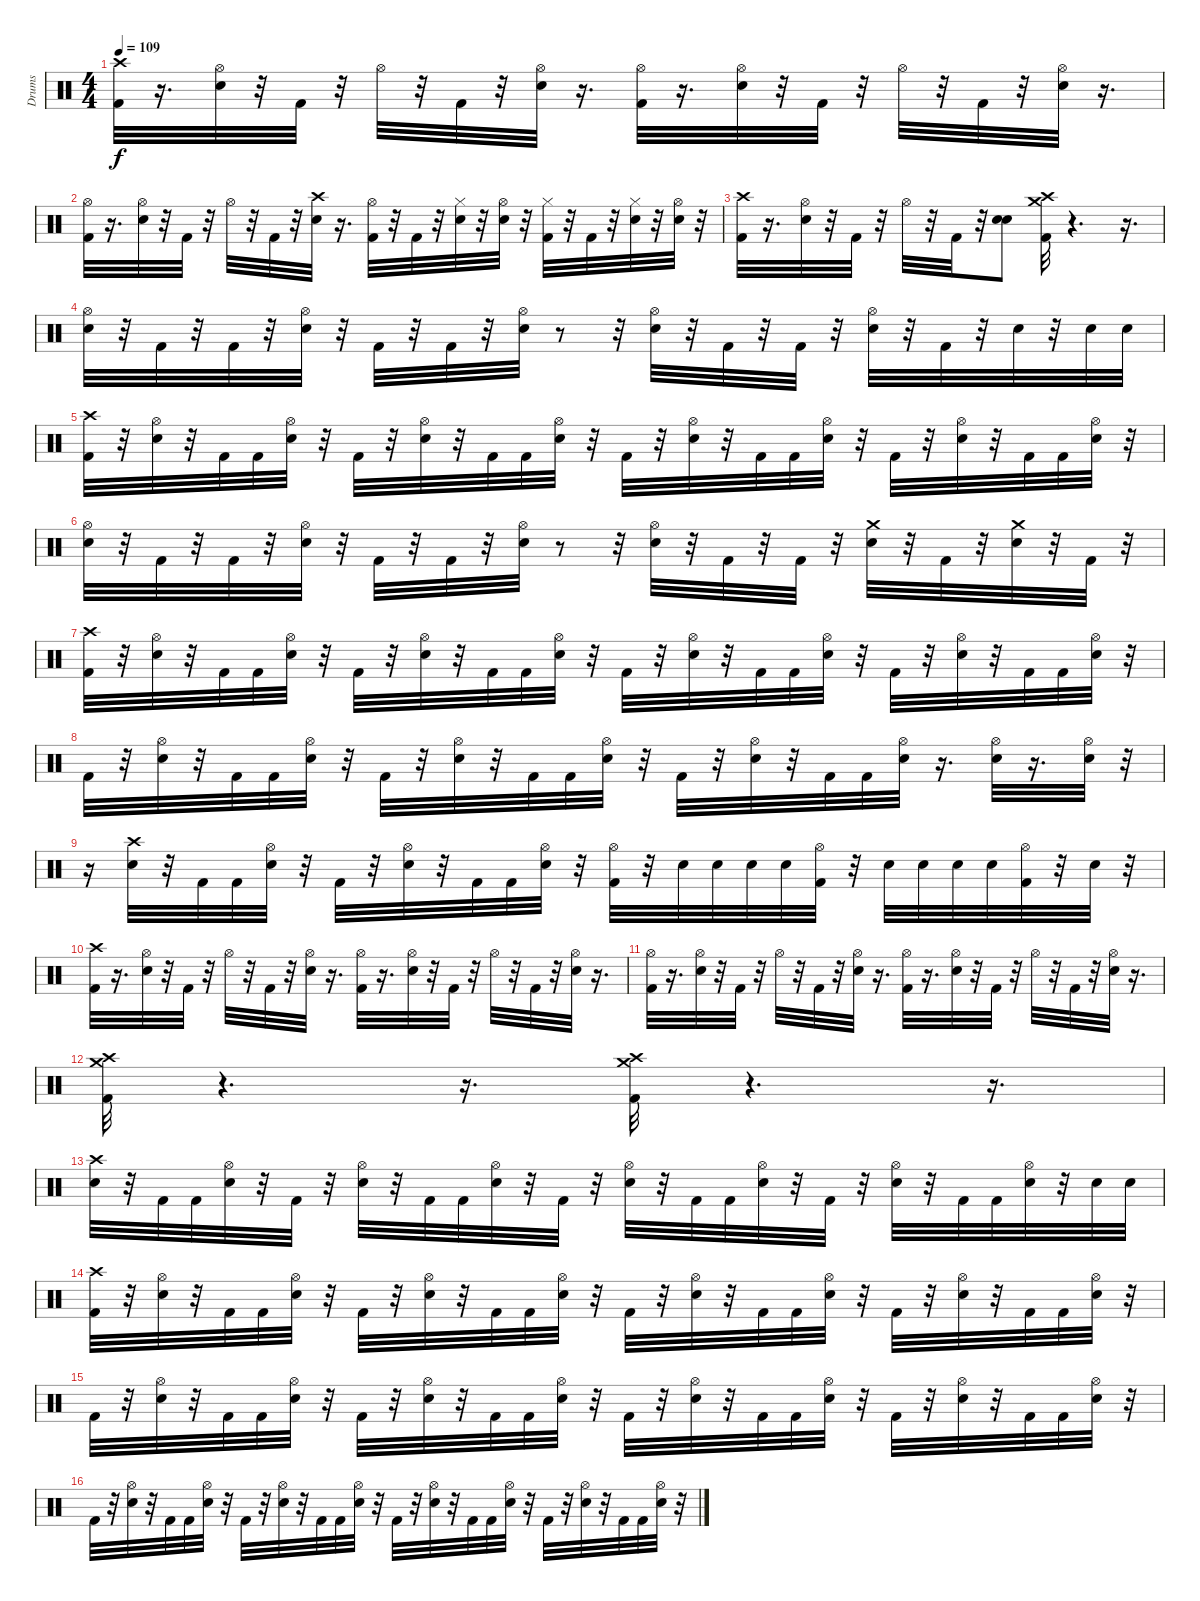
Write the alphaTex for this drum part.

\track ("Drums" "Drums") {instrument percussion}
\staff {score}
\articulation defaults
\ts (4 4)
\tempo 109
\clef neutral
\ks c
("Crash high (hit)" "Kick (hit) 2").32{dy f} r.16{d} ("Hi-Hat (open)" "Electric Snare (hit)").32 r.32 "Kick (hit) 2".32 r.32 "Hi-Hat (open)".32 r.32 "Kick (hit) 2".32 r.32 ("Hi-Hat (open)" "Electric Snare (hit)").32 r.16{d} ("Hi-Hat (open)" "Kick (hit) 2").32 r.16{d} ("Hi-Hat (open)" "Electric Snare (hit)").32 r.32 "Kick (hit) 2".32 r.32 "Hi-Hat (open)".32 r.32 "Kick (hit) 2".32 r.32 ("Hi-Hat (open)" "Electric Snare (hit)").32 r.16{d} |
("Hi-Hat (open)" "Kick (hit) 2").32 r.16{d} ("Hi-Hat (open)" "Electric Snare (hit)").32 r.32 "Kick (hit) 2".32 r.32 "Hi-Hat (open)".32 r.32 "Kick (hit) 2".32 r.32 ("Crash high (hit)" "Electric Snare (hit)").32 r.16{d} ("Hi-Hat (open)" "Kick (hit) 2").32 r.32 "Kick (hit) 2".32 r.32 ("Hi-Hat (closed)" "Electric Snare (hit)").32 r.32 ("Hi-Hat (open)" "Electric Snare (hit)").32 r.32 ("Hi-Hat (closed)" "Kick (hit) 2").32 r.32 "Kick (hit) 2".32 r.32 ("Hi-Hat (closed)" "Electric Snare (hit)").32 r.32 ("Electric Snare (hit)" "Hi-Hat (open)").32 r.32 |
("Crash high (hit)" "Kick (hit) 2").32 r.16{d} ("Hi-Hat (open)" "Electric Snare (hit)").32 r.32 "Kick (hit) 2".32 r.32 "Hi-Hat (open)".32 r.32 "Kick (hit) 2".32 r.32 ("Electric Snare (hit)" "Electric Snare (hit)").8 ("Crash medium (hit)" "Crash high (hit)" "Kick (hit) 2").32 r.4{d} r.16{d} |
("Hi-Hat (open)" "Electric Snare (hit)").32 r.32 "Kick (hit) 2".32 r.32 "Kick (hit) 2".32 r.32 ("Hi-Hat (open)" "Electric Snare (hit)").32 r.32 "Kick (hit) 2".32 r.32 "Kick (hit) 2".32 r.32 ("Hi-Hat (open)" "Electric Snare (hit)").32 r.8 r.32 ("Hi-Hat (open)" "Electric Snare (hit)").32 r.32 "Kick (hit) 2".32 r.32 "Kick (hit) 2".32 r.32 ("Hi-Hat (open)" "Electric Snare (hit)").32 r.32 "Kick (hit) 2".32 r.32 "Electric Snare (hit)".32 r.32 "Electric Snare (hit)".32 "Electric Snare (hit)".32 |
("Crash high (hit)" "Kick (hit) 2").32 r.32 ("Hi-Hat (open)" "Electric Snare (hit)").32 r.32 "Kick (hit) 2".32 "Kick (hit) 2".32 ("Hi-Hat (open)" "Electric Snare (hit)").32 r.32 "Kick (hit) 2".32 r.32 ("Hi-Hat (open)" "Electric Snare (hit)").32 r.32 "Kick (hit) 2".32 "Kick (hit) 2".32 ("Hi-Hat (open)" "Electric Snare (hit)").32 r.32 "Kick (hit) 2".32 r.32 ("Hi-Hat (open)" "Electric Snare (hit)").32 r.32 "Kick (hit) 2".32 "Kick (hit) 2".32 ("Hi-Hat (open)" "Electric Snare (hit)").32 r.32 "Kick (hit) 2".32 r.32 ("Hi-Hat (open)" "Electric Snare (hit)").32 r.32 "Kick (hit) 2".32 "Kick (hit) 2".32 ("Hi-Hat (open)" "Electric Snare (hit)").32 r.32 |
("Hi-Hat (open)" "Electric Snare (hit)").32 r.32 "Kick (hit) 2".32 r.32 "Kick (hit) 2".32 r.32 ("Hi-Hat (open)" "Electric Snare (hit)").32 r.32 "Kick (hit) 2".32 r.32 "Kick (hit) 2".32 r.32 ("Hi-Hat (open)" "Electric Snare (hit)").32 r.8 r.32 ("Hi-Hat (open)" "Electric Snare (hit)").32 r.32 "Kick (hit) 2".32 r.32 "Kick (hit) 2".32 r.32 ("Crash medium (hit)" "Electric Snare (hit)").32 r.32 "Kick (hit) 2".32 r.32 ("Crash medium (hit)" "Electric Snare (hit)").32 r.32 "Kick (hit) 2".32 r.32 |
("Crash high (hit)" "Kick (hit) 2").32 r.32 ("Hi-Hat (open)" "Electric Snare (hit)").32 r.32 "Kick (hit) 2".32 "Kick (hit) 2".32 ("Hi-Hat (open)" "Electric Snare (hit)").32 r.32 "Kick (hit) 2".32 r.32 ("Hi-Hat (open)" "Electric Snare (hit)").32 r.32 "Kick (hit) 2".32 "Kick (hit) 2".32 ("Hi-Hat (open)" "Electric Snare (hit)").32 r.32 "Kick (hit) 2".32 r.32 ("Hi-Hat (open)" "Electric Snare (hit)").32 r.32 "Kick (hit) 2".32 "Kick (hit) 2".32 ("Hi-Hat (open)" "Electric Snare (hit)").32 r.32 "Kick (hit) 2".32 r.32 ("Hi-Hat (open)" "Electric Snare (hit)").32 r.32 "Kick (hit) 2".32 "Kick (hit) 2".32 ("Hi-Hat (open)" "Electric Snare (hit)").32 r.32 |
"Kick (hit) 2".32 r.32 ("Hi-Hat (open)" "Electric Snare (hit)").32 r.32 "Kick (hit) 2".32 "Kick (hit) 2".32 ("Hi-Hat (open)" "Electric Snare (hit)").32 r.32 "Kick (hit) 2".32 r.32 ("Hi-Hat (open)" "Electric Snare (hit)").32 r.32 "Kick (hit) 2".32 "Kick (hit) 2".32 ("Hi-Hat (open)" "Electric Snare (hit)").32 r.32 "Kick (hit) 2".32 r.32 ("Hi-Hat (open)" "Electric Snare (hit)").32 r.32 "Kick (hit) 2".32 "Kick (hit) 2".32 ("Hi-Hat (open)" "Electric Snare (hit)").32 r.16{d} ("Hi-Hat (open)" "Electric Snare (hit)").32 r.16{d} ("Hi-Hat (open)" "Electric Snare (hit)").32 r.32 |
r.16 ("Crash high (hit)" "Electric Snare (hit)").32 r.32 "Kick (hit) 2".32 "Kick (hit) 2".32 ("Hi-Hat (open)" "Electric Snare (hit)").32 r.32 "Kick (hit) 2".32 r.32 ("Electric Snare (hit)" "Hi-Hat (open)").32 r.32 "Kick (hit) 2".32 "Kick (hit) 2".32 ("Hi-Hat (open)" "Electric Snare (hit)").32 r.32 ("Hi-Hat (open)" "Kick (hit) 2").32 r.32 "Electric Snare (hit)".32 "Electric Snare (hit)".32 "Electric Snare (hit)".32 "Electric Snare (hit)".32 ("Hi-Hat (open)" "Kick (hit) 2").32 r.32 "Electric Snare (hit)".32 "Electric Snare (hit)".32 "Electric Snare (hit)".32 "Electric Snare (hit)".32 ("Hi-Hat (open)" "Kick (hit) 2").32 r.32 "Electric Snare (hit)".32 r.32 |
("Crash high (hit)" "Kick (hit) 2").32 r.16{d} ("Hi-Hat (open)" "Electric Snare (hit)").32 r.32 "Kick (hit) 2".32 r.32 "Hi-Hat (open)".32 r.32 "Kick (hit) 2".32 r.32 ("Hi-Hat (open)" "Electric Snare (hit)").32 r.16{d} ("Hi-Hat (open)" "Kick (hit) 2").32 r.16{d} ("Hi-Hat (open)" "Electric Snare (hit)").32 r.32 "Kick (hit) 2".32 r.32 "Hi-Hat (open)".32 r.32 "Kick (hit) 2".32 r.32 ("Hi-Hat (open)" "Electric Snare (hit)").32 r.16{d} |
("Hi-Hat (open)" "Kick (hit) 2").32 r.16{d} ("Hi-Hat (open)" "Electric Snare (hit)").32 r.32 "Kick (hit) 2".32 r.32 "Hi-Hat (open)".32 r.32 "Kick (hit) 2".32 r.32 ("Hi-Hat (open)" "Electric Snare (hit)").32 r.16{d} ("Hi-Hat (open)" "Kick (hit) 2").32 r.16{d} ("Hi-Hat (open)" "Electric Snare (hit)").32 r.32 "Kick (hit) 2".32 r.32 "Hi-Hat (open)".32 r.32 "Kick (hit) 2".32 r.32 ("Hi-Hat (open)" "Electric Snare (hit)").32 r.16{d} |
("Crash medium (hit)" "Crash high (hit)" "Kick (hit) 2").32 r.4{d} r.16{d} ("Crash medium (hit)" "Crash high (hit)" "Kick (hit) 2").32 r.4{d} r.16{d} |
("Crash high (hit)" "Electric Snare (hit)").32 r.32 "Kick (hit) 2".32 "Kick (hit) 2".32 ("Hi-Hat (open)" "Electric Snare (hit)").32 r.32 "Kick (hit) 2".32 r.32 ("Hi-Hat (open)" "Electric Snare (hit)").32 r.32 "Kick (hit) 2".32 "Kick (hit) 2".32 ("Hi-Hat (open)" "Electric Snare (hit)").32 r.32 "Kick (hit) 2".32 r.32 ("Hi-Hat (open)" "Electric Snare (hit)").32 r.32 "Kick (hit) 2".32 "Kick (hit) 2".32 ("Hi-Hat (open)" "Electric Snare (hit)").32 r.32 "Kick (hit) 2".32 r.32 ("Hi-Hat (open)" "Electric Snare (hit)").32 r.32 "Kick (hit) 2".32 "Kick (hit) 2".32 ("Hi-Hat (open)" "Electric Snare (hit)").32 r.32 "Electric Snare (hit)".32 "Electric Snare (hit)".32 |
("Crash high (hit)" "Kick (hit) 2").32 r.32 ("Hi-Hat (open)" "Electric Snare (hit)").32 r.32 "Kick (hit) 2".32 "Kick (hit) 2".32 ("Hi-Hat (open)" "Electric Snare (hit)").32 r.32 "Kick (hit) 2".32 r.32 ("Hi-Hat (open)" "Electric Snare (hit)").32 r.32 "Kick (hit) 2".32 "Kick (hit) 2".32 ("Hi-Hat (open)" "Electric Snare (hit)").32 r.32 "Kick (hit) 2".32 r.32 ("Hi-Hat (open)" "Electric Snare (hit)").32 r.32 "Kick (hit) 2".32 "Kick (hit) 2".32 ("Hi-Hat (open)" "Electric Snare (hit)").32 r.32 "Kick (hit) 2".32 r.32 ("Hi-Hat (open)" "Electric Snare (hit)").32 r.32 "Kick (hit) 2".32 "Kick (hit) 2".32 ("Hi-Hat (open)" "Electric Snare (hit)").32 r.32 |
"Kick (hit) 2".32 r.32 ("Hi-Hat (open)" "Electric Snare (hit)").32 r.32 "Kick (hit) 2".32 "Kick (hit) 2".32 ("Hi-Hat (open)" "Electric Snare (hit)").32 r.32 "Kick (hit) 2".32 r.32 ("Hi-Hat (open)" "Electric Snare (hit)").32 r.32 "Kick (hit) 2".32 "Kick (hit) 2".32 ("Hi-Hat (open)" "Electric Snare (hit)").32 r.32 "Kick (hit) 2".32 r.32 ("Hi-Hat (open)" "Electric Snare (hit)").32 r.32 "Kick (hit) 2".32 "Kick (hit) 2".32 ("Hi-Hat (open)" "Electric Snare (hit)").32 r.32 "Kick (hit) 2".32 r.32 ("Hi-Hat (open)" "Electric Snare (hit)").32 r.32 "Kick (hit) 2".32 "Kick (hit) 2".32 ("Hi-Hat (open)" "Electric Snare (hit)").32 r.32 |
"Kick (hit) 2".32 r.32 ("Hi-Hat (open)" "Electric Snare (hit)").32 r.32 "Kick (hit) 2".32 "Kick (hit) 2".32 ("Hi-Hat (open)" "Electric Snare (hit)").32 r.32 "Kick (hit) 2".32 r.32 ("Hi-Hat (open)" "Electric Snare (hit)").32 r.32 "Kick (hit) 2".32 "Kick (hit) 2".32 ("Hi-Hat (open)" "Electric Snare (hit)").32 r.32 "Kick (hit) 2".32 r.32 ("Hi-Hat (open)" "Electric Snare (hit)").32 r.32 "Kick (hit) 2".32 "Kick (hit) 2".32 ("Hi-Hat (open)" "Electric Snare (hit)").32 r.32 "Kick (hit) 2".32 r.32 ("Hi-Hat (open)" "Electric Snare (hit)").32 r.32 "Kick (hit) 2".32 "Kick (hit) 2".32 ("Hi-Hat (open)" "Electric Snare (hit)").32 r.32
